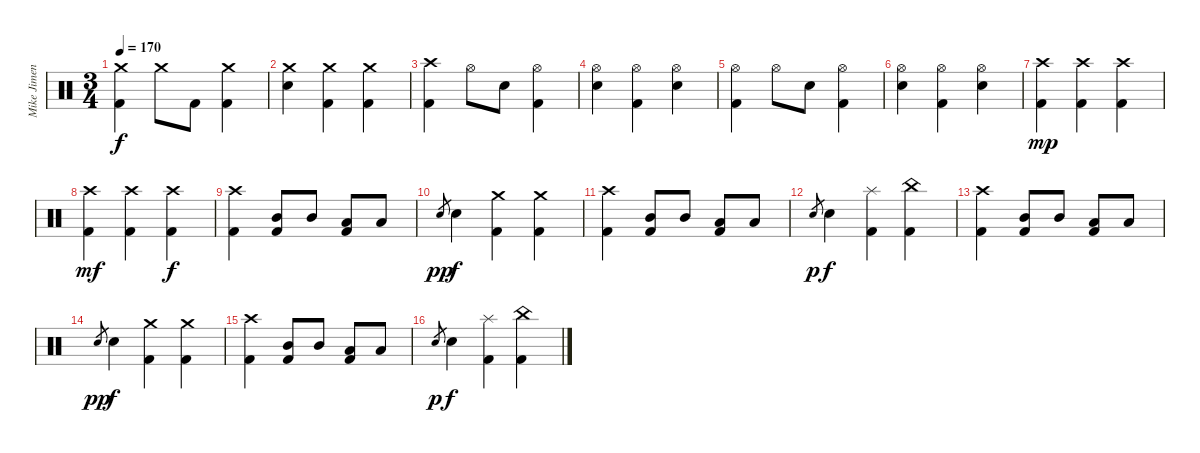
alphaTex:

\track ("Mike Jimenez" "Mike Jimen") {instrument percussion}
\staff {score}
\articulation defaults
\ts (3 4)
\tempo 170
\clef neutral
\ks c
("Crash medium (hit)" "Kick (hit) 2").4{dy f} "Crash medium (hit)".8 "Kick (hit) 2".8 ("Crash medium (hit)" "Kick (hit) 2").4 |
("Crash medium (hit)" "Electric Snare (hit)").4 ("Crash medium (hit)" "Kick (hit) 2").4 ("Crash medium (hit)" "Kick (hit) 2").4 |
("Crash high (hit)" "Kick (hit) 2").4 "Hi-Hat (open)".8 "Electric Snare (hit)".8 ("Hi-Hat (open)" "Kick (hit) 2").4 |
("Hi-Hat (open)" "Electric Snare (hit)").4 ("Hi-Hat (open)" "Kick (hit) 2").4 ("Hi-Hat (open)" "Electric Snare (hit)").4 |
("Hi-Hat (open)" "Kick (hit) 2").4 "Hi-Hat (open)".8 "Electric Snare (hit)".8 ("Hi-Hat (open)" "Kick (hit) 2").4 |
("Hi-Hat (open)" "Electric Snare (hit)").4 ("Hi-Hat (open)" "Kick (hit) 2").4 ("Hi-Hat (open)" "Electric Snare (hit)").4 |
("Crash high (hit)" "Kick (hit) 2").4{dy mp} ("Crash high (hit)" "Kick (hit) 2").4 ("Crash high (hit)" "Kick (hit) 2").4 |
("Crash high (hit)" "Kick (hit) 2").4{dy mf} ("Crash high (hit)" "Kick (hit) 2").4 ("Crash high (hit)" "Kick (hit) 2").4{dy f} |
("Crash high (hit)" "Kick (hit) 2").4 ("Mid Tom (hit)" "Kick (hit) 2").8 "Mid Tom (hit)".8 ("Low Tom (hit)" "Kick (hit) 2").8 "Low Tom (hit)".8 |
"Electric Snare (hit)".8{gr dy pp} "Electric Snare (hit)".4{dy f} ("Crash medium (hit)" "Kick (hit) 2").4 ("Crash medium (hit)" "Kick (hit) 2").4 |
("Crash high (hit)" "Kick (hit) 2").4 ("Mid Tom (hit)" "Kick (hit) 2").8 "Mid Tom (hit)".8 ("Low Tom (hit)" "Kick (hit) 2").8 "Low Tom (hit)".8 |
"Electric Snare (hit)".8{gr dy p} "Electric Snare (hit)".4{dy f} ("Splash (hit)" "Kick (hit) 2").4 ("China (hit)" "Kick (hit) 2").4 |
("Crash high (hit)" "Kick (hit) 2").4 ("Mid Tom (hit)" "Kick (hit) 2").8 "Mid Tom (hit)".8 ("Low Tom (hit)" "Kick (hit) 2").8 "Low Tom (hit)".8 |
"Electric Snare (hit)".8{gr dy pp} "Electric Snare (hit)".4{dy f} ("Crash medium (hit)" "Kick (hit) 2").4 ("Crash medium (hit)" "Kick (hit) 2").4 |
("Crash high (hit)" "Kick (hit) 2").4 ("Mid Tom (hit)" "Kick (hit) 2").8 "Mid Tom (hit)".8 ("Low Tom (hit)" "Kick (hit) 2").8 "Low Tom (hit)".8 |
"Electric Snare (hit)".8{gr dy p} "Electric Snare (hit)".4{dy f} ("Splash (hit)" "Kick (hit) 2").4 ("China (hit)" "Kick (hit) 2").4
